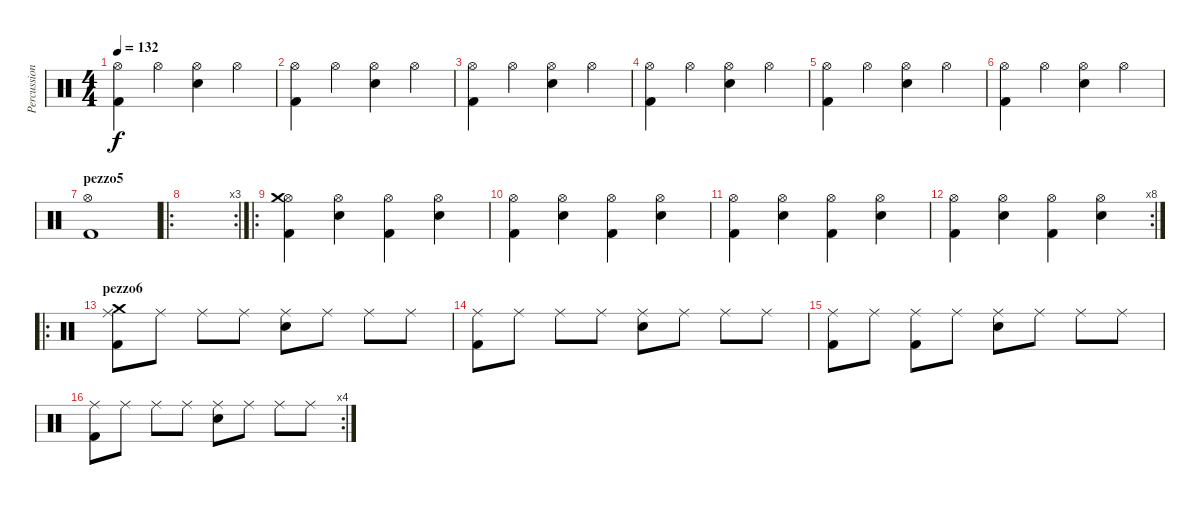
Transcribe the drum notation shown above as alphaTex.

\track ("Percussioni" "Percussion") {instrument percussion}
\staff {score}
\articulation defaults
\ts (4 4)
\tempo 132
\clef neutral
\ks c
("Kick (hit) 2" "Hi-Hat (open)").4{dy f} "Hi-Hat (open)".4 ("Electric Snare (hit)" "Hi-Hat (open)").4 "Hi-Hat (open)".4 |
("Kick (hit) 2" "Hi-Hat (open)").4 "Hi-Hat (open)".4 ("Electric Snare (hit)" "Hi-Hat (open)").4 "Hi-Hat (open)".4 |
("Kick (hit) 2" "Hi-Hat (open)").4 "Hi-Hat (open)".4 ("Electric Snare (hit)" "Hi-Hat (open)").4 "Hi-Hat (open)".4 |
("Kick (hit) 2" "Hi-Hat (open)").4 "Hi-Hat (open)".4 ("Electric Snare (hit)" "Hi-Hat (open)").4 "Hi-Hat (open)".4 |
("Kick (hit) 2" "Hi-Hat (open)").4 "Hi-Hat (open)".4 ("Electric Snare (hit)" "Hi-Hat (open)").4 "Hi-Hat (open)".4 |
("Kick (hit) 2" "Hi-Hat (open)").4 "Hi-Hat (open)".4 ("Electric Snare (hit)" "Hi-Hat (open)").4 "Hi-Hat (open)".4 |
\section ("" "pezzo5")
("Kick (hit) 2" "Hi-Hat (open)").1 |
\ro
\rc 3
|
\ro
("Kick (hit) 2" "Hi-Hat (open)" "Crash medium (hit)").4 ("Electric Snare (hit)" "Hi-Hat (open)").4 ("Kick (hit) 2" "Hi-Hat (open)").4 ("Electric Snare (hit)" "Hi-Hat (open)").4 |
("Kick (hit) 2" "Hi-Hat (open)").4 ("Electric Snare (hit)" "Hi-Hat (open)").4 ("Kick (hit) 2" "Hi-Hat (open)").4 ("Electric Snare (hit)" "Hi-Hat (open)").4 |
("Kick (hit) 2" "Hi-Hat (open)").4 ("Electric Snare (hit)" "Hi-Hat (open)").4 ("Kick (hit) 2" "Hi-Hat (open)").4 ("Electric Snare (hit)" "Hi-Hat (open)").4 |
\rc 8
("Kick (hit) 2" "Hi-Hat (open)").4 ("Electric Snare (hit)" "Hi-Hat (open)").4 ("Kick (hit) 2" "Hi-Hat (open)").4 ("Electric Snare (hit)" "Hi-Hat (open)").4 |
\ro
\section ("" "pezzo6")
("Kick (hit) 2" "Ride (middle)" "Crash medium (hit)").8 "Ride (middle)".8 "Ride (middle)".8 "Ride (middle)".8 ("Electric Snare (hit)" "Ride (middle)").8 "Ride (middle)".8 "Ride (middle)".8 "Ride (middle)".8 |
("Kick (hit) 2" "Ride (middle)").8 "Ride (middle)".8 "Ride (middle)".8 "Ride (middle)".8 ("Electric Snare (hit)" "Ride (middle)").8 "Ride (middle)".8 "Ride (middle)".8 "Ride (middle)".8 |
("Kick (hit) 2" "Ride (middle)").8 "Ride (middle)".8 ("Kick (hit) 2" "Ride (middle)").8 "Ride (middle)".8 ("Electric Snare (hit)" "Ride (middle)").8 "Ride (middle)".8 "Ride (middle)".8 "Ride (middle)".8 |
\rc 4
("Kick (hit) 2" "Ride (middle)").8 "Ride (middle)".8 "Ride (middle)".8 "Ride (middle)".8 ("Electric Snare (hit)" "Ride (middle)").8 "Ride (middle)".8 "Ride (middle)".8 "Ride (middle)".8
